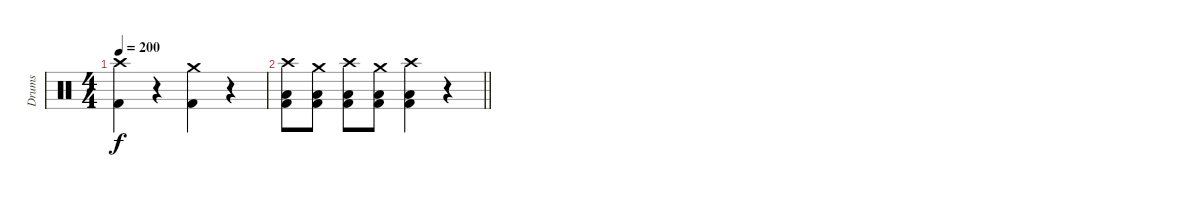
\track ("Drums" "Drums") {instrument percussion}
\staff {score}
\articulation defaults
\ts (4 4)
\tempo 200
\clef neutral
\ks c
("Crash high (hit)" "Kick (hit) 2").4{dy f} r.4 ("Crash medium (hit)" "Kick (hit) 2").4 r.4 |
\barLineRight lightlight
("Crash high (hit)" "Low Floor Tom (hit)" "Kick (hit) 2").8 ("Crash medium (hit)" "Low Floor Tom (hit)" "Kick (hit) 2").8 ("Crash high (hit)" "Low Floor Tom (hit)" "Kick (hit) 2").8 ("Crash medium (hit)" "Low Floor Tom (hit)" "Kick (hit) 2").8 ("Crash high (hit)" "Low Floor Tom (hit)" "Kick (hit) 2").4 r.4
